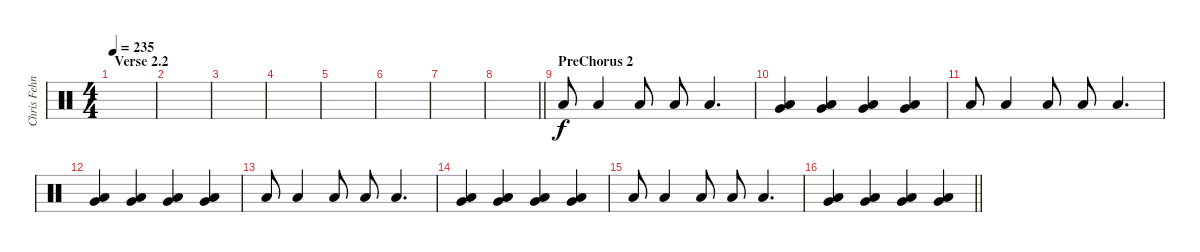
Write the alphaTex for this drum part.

\track ("Chris Fehn" "Chris Fehn") {instrument percussion}
\staff {score}
\articulation defaults
\ts (4 4)
\section ("" "Verse 2.2")
\tempo 235
\clef neutral
\ks c
|
|
|
|
|
|
|
\barLineRight lightlight
|
\section ("" "PreChorus 2")
"Low Floor Tom (hit)".8 "Low Floor Tom (hit)".4 "Low Floor Tom (hit)".8 "Low Floor Tom (hit)".8 "Low Floor Tom (hit)".4{d} |
("Very Low Tom (hit)" "Low Floor Tom (hit)").4 ("Very Low Tom (hit)" "Low Floor Tom (hit)").4 ("Very Low Tom (hit)" "Low Floor Tom (hit)").4 ("Very Low Tom (hit)" "Low Floor Tom (hit)").4 |
"Low Floor Tom (hit)".8 "Low Floor Tom (hit)".4 "Low Floor Tom (hit)".8 "Low Floor Tom (hit)".8 "Low Floor Tom (hit)".4{d} |
("Very Low Tom (hit)" "Low Floor Tom (hit)").4 ("Very Low Tom (hit)" "Low Floor Tom (hit)").4 ("Very Low Tom (hit)" "Low Floor Tom (hit)").4 ("Very Low Tom (hit)" "Low Floor Tom (hit)").4 |
"Low Floor Tom (hit)".8 "Low Floor Tom (hit)".4 "Low Floor Tom (hit)".8 "Low Floor Tom (hit)".8 "Low Floor Tom (hit)".4{d} |
("Very Low Tom (hit)" "Low Floor Tom (hit)").4 ("Very Low Tom (hit)" "Low Floor Tom (hit)").4 ("Very Low Tom (hit)" "Low Floor Tom (hit)").4 ("Very Low Tom (hit)" "Low Floor Tom (hit)").4 |
"Low Floor Tom (hit)".8 "Low Floor Tom (hit)".4 "Low Floor Tom (hit)".8 "Low Floor Tom (hit)".8 "Low Floor Tom (hit)".4{d} |
\barLineRight lightlight
("Very Low Tom (hit)" "Low Floor Tom (hit)").4 ("Very Low Tom (hit)" "Low Floor Tom (hit)").4 ("Very Low Tom (hit)" "Low Floor Tom (hit)").4 ("Very Low Tom (hit)" "Low Floor Tom (hit)").4
